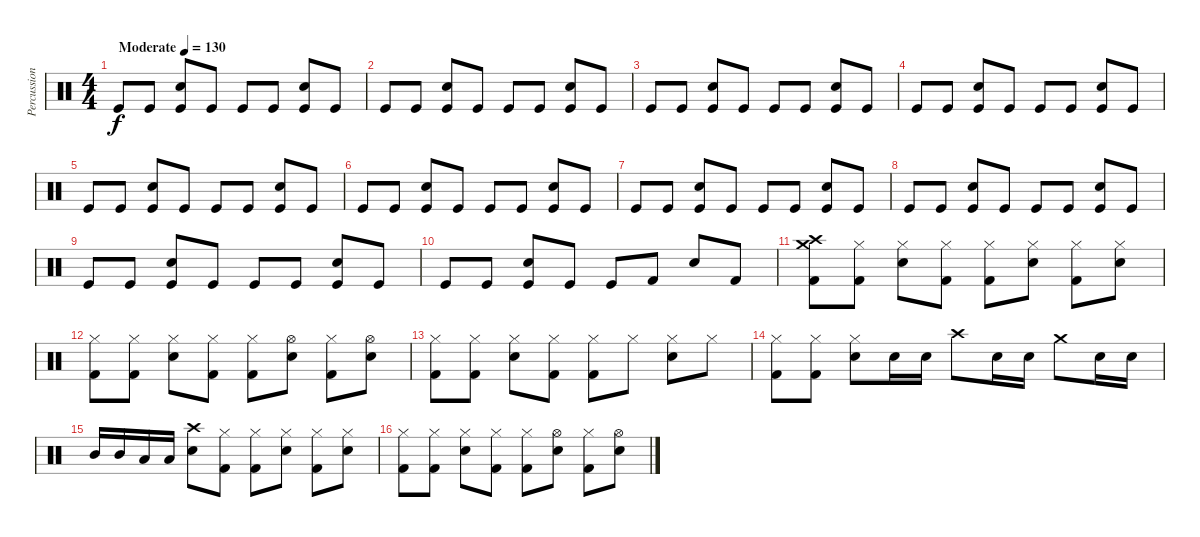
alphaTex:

\track ("Percussion" "Percussion") {instrument percussion}
\staff {score}
\articulation defaults
\ts (4 4)
\tempo (130 "Moderate")
\clef neutral
\ks c "Kick (hit)".8{dy f volume 9} "Kick (hit)".8
("Snare (hit) 2" "Kick (hit)").8 "Kick (hit)".8 "Kick (hit)".8 "Kick (hit)".8 ("Snare (hit) 2" "Kick (hit)").8 "Kick (hit)".8 |
"Kick (hit)".8 "Kick (hit)".8 ("Snare (hit) 2" "Kick (hit)").8 "Kick (hit)".8 "Kick (hit)".8 "Kick (hit)".8 ("Snare (hit) 2" "Kick (hit)").8 "Kick (hit)".8 |
"Kick (hit)".8 "Kick (hit)".8 ("Snare (hit) 2" "Kick (hit)").8 "Kick (hit)".8 "Kick (hit)".8 "Kick (hit)".8 ("Snare (hit) 2" "Kick (hit)").8 "Kick (hit)".8 |
"Kick (hit)".8 "Kick (hit)".8 ("Snare (hit) 2" "Kick (hit)").8 "Kick (hit)".8 "Kick (hit)".8 "Kick (hit)".8 ("Snare (hit) 2" "Kick (hit)").8 "Kick (hit)".8 |
"Kick (hit)".8 "Kick (hit)".8 ("Snare (hit) 2" "Kick (hit)").8 "Kick (hit)".8 "Kick (hit)".8 "Kick (hit)".8 ("Snare (hit) 2" "Kick (hit)").8 "Kick (hit)".8 |
"Kick (hit)".8 "Kick (hit)".8 ("Snare (hit) 2" "Kick (hit)").8 "Kick (hit)".8 "Kick (hit)".8 "Kick (hit)".8 ("Snare (hit) 2" "Kick (hit)").8 "Kick (hit)".8 |
"Kick (hit)".8 "Kick (hit)".8 ("Snare (hit) 2" "Kick (hit)").8 "Kick (hit)".8 "Kick (hit)".8 "Kick (hit)".8 ("Snare (hit) 2" "Kick (hit)").8 "Kick (hit)".8 |
"Kick (hit)".8 "Kick (hit)".8 ("Snare (hit) 2" "Kick (hit)").8 "Kick (hit)".8 "Kick (hit)".8 "Kick (hit)".8 ("Snare (hit) 2" "Kick (hit)").8 "Kick (hit)".8 |
"Kick (hit)".8 "Kick (hit)".8 ("Snare (hit) 2" "Kick (hit)").8 "Kick (hit)".8 "Kick (hit)".8 "Kick (hit)".8 ("Snare (hit) 2" "Kick (hit)").8 "Kick (hit)".8 |
"Kick (hit)".8 "Kick (hit)".8 ("Snare (hit) 2" "Kick (hit)").8 "Kick (hit)".8 "Kick (hit)".8 "Kick (hit) 2".8{volume 16} "Electric Snare (hit)".8 "Kick (hit) 2".8 |
("Crash high (hit)" "Crash medium (hit)" "Kick (hit) 2").8 ("Hi-Hat (closed)" "Kick (hit) 2").8 ("Hi-Hat (closed)" "Electric Snare (hit)").8 ("Hi-Hat (closed)" "Kick (hit) 2").8 ("Hi-Hat (closed)" "Kick (hit) 2").8 ("Hi-Hat (closed)" "Electric Snare (hit)").8 ("Hi-Hat (closed)" "Kick (hit) 2").8 ("Hi-Hat (closed)" "Electric Snare (hit)").8 |
("Hi-Hat (closed)" "Kick (hit) 2").8 ("Hi-Hat (closed)" "Kick (hit) 2").8 ("Hi-Hat (closed)" "Electric Snare (hit)").8 ("Hi-Hat (closed)" "Kick (hit) 2").8 ("Hi-Hat (closed)" "Kick (hit) 2").8 ("Hi-Hat (open)" "Electric Snare (hit)").8 ("Hi-Hat (closed)" "Kick (hit) 2").8 ("Hi-Hat (open)" "Electric Snare (hit)").8 |
("Hi-Hat (closed)" "Kick (hit) 2").8 ("Hi-Hat (closed)" "Kick (hit) 2").8 ("Hi-Hat (closed)" "Electric Snare (hit)").8 ("Hi-Hat (closed)" "Kick (hit) 2").8 ("Hi-Hat (closed)" "Kick (hit) 2").8 "Hi-Hat (closed)".8 ("Hi-Hat (closed)" "Electric Snare (hit)").8 "Hi-Hat (closed)".8 |
("Hi-Hat (closed)" "Kick (hit) 2").8 ("Hi-Hat (closed)" "Kick (hit) 2").8 ("Hi-Hat (closed)" "Electric Snare (hit)").8 "Electric Snare (hit)".16 "Electric Snare (hit)".16 "Crash high (hit)".8 "Electric Snare (hit)".16 "Electric Snare (hit)".16 "Crash medium (hit)".8 "Electric Snare (hit)".16 "Electric Snare (hit)".16 |
"Mid Tom (hit)".16 "Mid Tom (hit)".16 "Low Tom (hit)".16 "Low Tom (hit)".16 ("Crash high (hit)" "Electric Snare (hit)").8 ("Hi-Hat (closed)" "Kick (hit) 2").8 ("Hi-Hat (closed)" "Kick (hit) 2").8 ("Hi-Hat (closed)" "Electric Snare (hit)").8 ("Hi-Hat (closed)" "Kick (hit) 2").8 ("Hi-Hat (closed)" "Electric Snare (hit)").8 |
("Hi-Hat (closed)" "Kick (hit) 2").8 ("Hi-Hat (closed)" "Kick (hit) 2").8 ("Hi-Hat (closed)" "Electric Snare (hit)").8 ("Hi-Hat (closed)" "Kick (hit) 2").8 ("Hi-Hat (closed)" "Kick (hit) 2").8 ("Hi-Hat (open)" "Electric Snare (hit)").8 ("Hi-Hat (closed)" "Kick (hit) 2").8 ("Hi-Hat (open)" "Electric Snare (hit)").8
